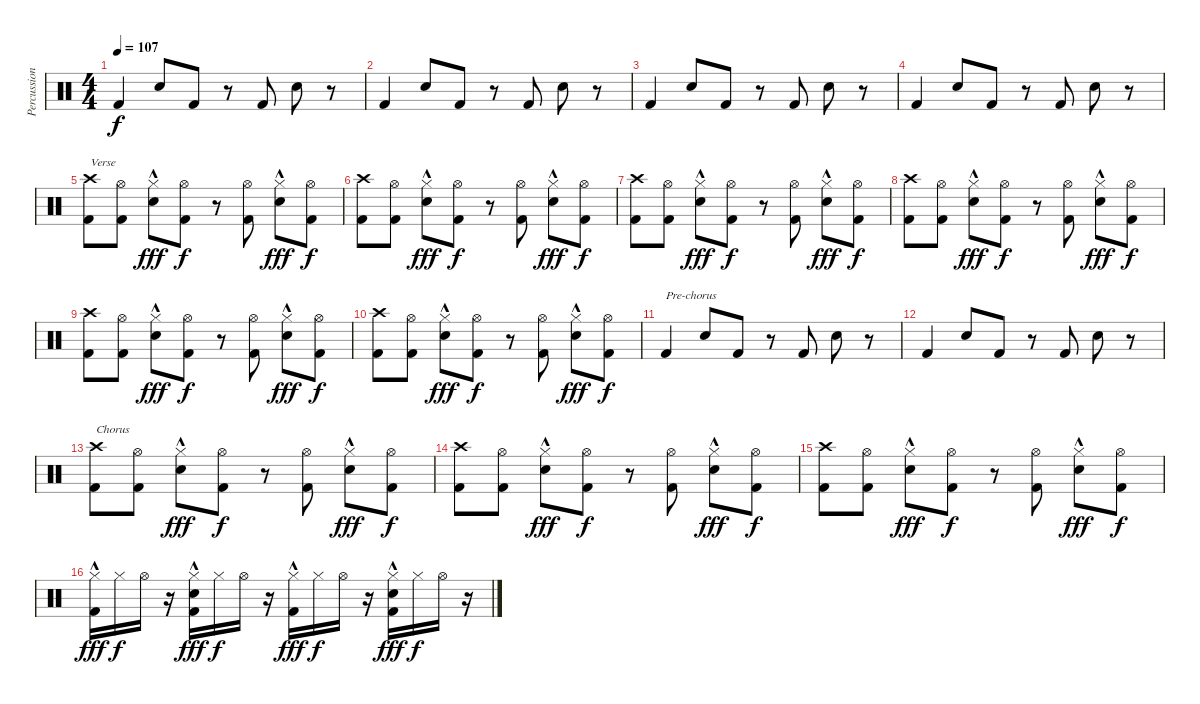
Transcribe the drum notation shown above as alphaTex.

\track ("Percussion" "Percussion") {instrument percussion}
\staff {score}
\articulation defaults
\ts (4 4)
\tempo 107
\clef neutral
\ks c "Kick (hit) 2".4{dy f} "Hand Clap (hit)".8 "Kick (hit) 2".8
r.8 "Kick (hit) 2".8 "Hand Clap (hit)".8 r.8 |
"Kick (hit) 2".4 "Hand Clap (hit)".8 "Kick (hit) 2".8 r.8 "Kick (hit) 2".8 "Hand Clap (hit)".8 r.8 |
"Kick (hit) 2".4 "Hand Clap (hit)".8 "Kick (hit) 2".8 r.8 "Kick (hit) 2".8 "Hand Clap (hit)".8 r.8 |
"Kick (hit) 2".4 "Hand Clap (hit)".8 "Kick (hit) 2".8 r.8 "Kick (hit) 2".8 "Hand Clap (hit)".8 r.8 |
("Crash high (hit)" "Kick (hit) 2").8{txt "Verse"} ("Hi-Hat (open)" "Kick (hit) 2").8 ("Hi-Hat (closed)"{hac} "Snare (hit) 2").8{dy fff} ("Hi-Hat (open)" "Kick (hit) 2").8{dy f} r.8 ("Hi-Hat (open)" "Kick (hit) 2").8 ("Hi-Hat (closed)"{hac} "Snare (hit) 2").8{dy fff} ("Hi-Hat (open)" "Kick (hit) 2").8{dy f} |
("Crash high (hit)" "Kick (hit) 2").8 ("Hi-Hat (open)" "Kick (hit) 2").8 ("Hi-Hat (closed)"{hac} "Snare (hit) 2").8{dy fff} ("Hi-Hat (open)" "Kick (hit) 2").8{dy f} r.8 ("Hi-Hat (open)" "Kick (hit) 2").8 ("Hi-Hat (closed)"{hac} "Snare (hit) 2").8{dy fff} ("Hi-Hat (open)" "Kick (hit) 2").8{dy f} |
("Crash high (hit)" "Kick (hit) 2").8 ("Hi-Hat (open)" "Kick (hit) 2").8 ("Hi-Hat (closed)"{hac} "Snare (hit) 2").8{dy fff} ("Hi-Hat (open)" "Kick (hit) 2").8{dy f} r.8 ("Hi-Hat (open)" "Kick (hit) 2").8 ("Hi-Hat (closed)"{hac} "Snare (hit) 2").8{dy fff} ("Hi-Hat (open)" "Kick (hit) 2").8{dy f} |
("Crash high (hit)" "Kick (hit) 2").8 ("Hi-Hat (open)" "Kick (hit) 2").8 ("Hi-Hat (closed)"{hac} "Snare (hit) 2").8{dy fff} ("Hi-Hat (open)" "Kick (hit) 2").8{dy f} r.8 ("Hi-Hat (open)" "Kick (hit) 2").8 ("Hi-Hat (closed)"{hac} "Snare (hit) 2").8{dy fff} ("Hi-Hat (open)" "Kick (hit) 2").8{dy f} |
("Crash high (hit)" "Kick (hit) 2").8 ("Hi-Hat (open)" "Kick (hit) 2").8 ("Hi-Hat (closed)"{hac} "Snare (hit) 2").8{dy fff} ("Hi-Hat (open)" "Kick (hit) 2").8{dy f} r.8 ("Hi-Hat (open)" "Kick (hit) 2").8 ("Hi-Hat (closed)"{hac} "Snare (hit) 2").8{dy fff} ("Hi-Hat (open)" "Kick (hit) 2").8{dy f} |
("Crash high (hit)" "Kick (hit) 2").8 ("Hi-Hat (open)" "Kick (hit) 2").8 ("Hi-Hat (closed)"{hac} "Snare (hit) 2").8{dy fff} ("Hi-Hat (open)" "Kick (hit) 2").8{dy f} r.8 ("Hi-Hat (open)" "Kick (hit) 2").8 ("Hi-Hat (closed)"{hac} "Snare (hit) 2").8{dy fff} ("Hi-Hat (open)" "Kick (hit) 2").8{dy f} |
"Kick (hit) 2".4{txt "Pre-chorus"} "Snare (hit) 2".8 "Kick (hit) 2".8 r.8 "Kick (hit) 2".8 "Snare (hit) 2".8 r.8 |
"Kick (hit) 2".4 "Snare (hit) 2".8 "Kick (hit) 2".8 r.8 "Kick (hit) 2".8 "Snare (hit) 2".8 r.8 |
("Crash high (hit)" "Kick (hit) 2").8{txt "Chorus"} ("Hi-Hat (open)" "Kick (hit) 2").8 ("Hi-Hat (closed)"{hac} "Snare (hit) 2").8{dy fff} ("Hi-Hat (open)" "Kick (hit) 2").8{dy f} r.8 ("Hi-Hat (open)" "Kick (hit) 2").8 ("Hi-Hat (closed)"{hac} "Snare (hit) 2").8{dy fff} ("Hi-Hat (open)" "Kick (hit) 2").8{dy f} |
("Crash high (hit)" "Kick (hit) 2").8 ("Hi-Hat (open)" "Kick (hit) 2").8 ("Hi-Hat (closed)"{hac} "Snare (hit) 2").8{dy fff} ("Hi-Hat (open)" "Kick (hit) 2").8{dy f} r.8 ("Hi-Hat (open)" "Kick (hit) 2").8 ("Hi-Hat (closed)"{hac} "Snare (hit) 2").8{dy fff} ("Hi-Hat (open)" "Kick (hit) 2").8{dy f} |
("Crash high (hit)" "Kick (hit) 2").8 ("Hi-Hat (open)" "Kick (hit) 2").8 ("Hi-Hat (closed)"{hac} "Snare (hit) 2").8{dy fff} ("Hi-Hat (open)" "Kick (hit) 2").8{dy f} r.8 ("Hi-Hat (open)" "Kick (hit) 2").8 ("Hi-Hat (closed)"{hac} "Snare (hit) 2").8{dy fff} ("Hi-Hat (open)" "Kick (hit) 2").8{dy f} |
("Hi-Hat (closed)"{hac} "Kick (hit) 2").16{dy fff} "Hi-Hat (closed)".16{dy f} "Hi-Hat (open)".16 r.16 ("Hi-Hat (closed)"{hac} "Snare (hit) 2" "Kick (hit) 2").16{dy fff} "Hi-Hat (closed)".16{dy f} "Hi-Hat (open)".16 r.16 ("Hi-Hat (closed)"{hac} "Kick (hit) 2").16{dy fff} "Hi-Hat (closed)".16{dy f} "Hi-Hat (open)".16 r.16 ("Hi-Hat (closed)"{hac} "Snare (hit) 2" "Kick (hit) 2").16{dy fff} "Hi-Hat (closed)".16{dy f} "Hi-Hat (open)".16 r.16
